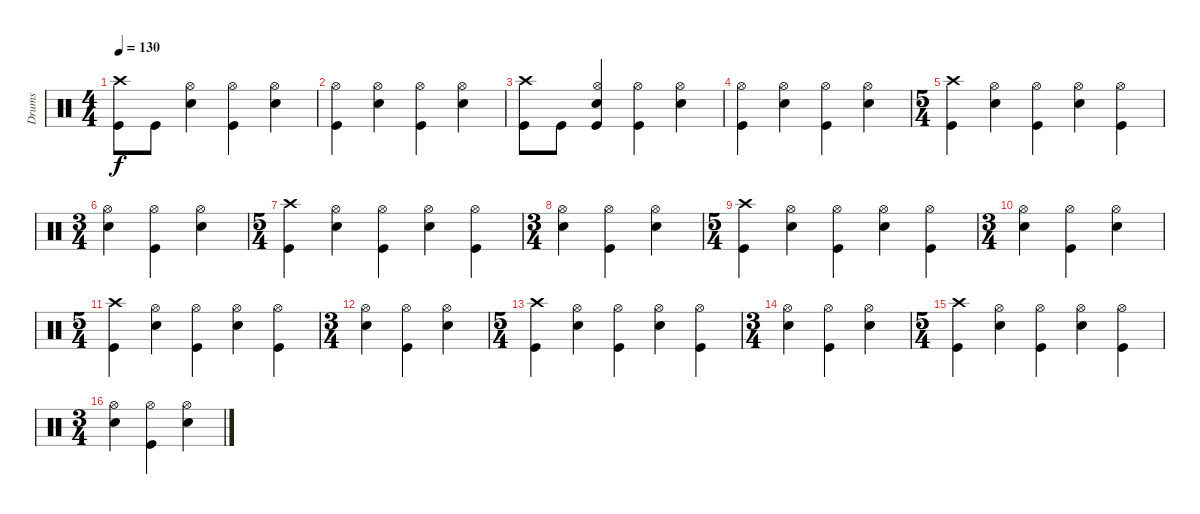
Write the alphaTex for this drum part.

\track ("Drums" "Drums") {instrument percussion}
\staff {score}
\articulation defaults
\ts (4 4)
\tempo 130
\clef neutral
\ks c
("Crash high (hit)" "Kick (hit)").8{dy f} "Kick (hit)".8 ("Hi-Hat (open)" "Snare (hit) 2").4 ("Hi-Hat (open)" "Kick (hit)").4 ("Hi-Hat (open)" "Snare (hit) 2").4 |
("Hi-Hat (open)" "Kick (hit)").4 ("Hi-Hat (open)" "Snare (hit) 2").4 ("Hi-Hat (open)" "Kick (hit)").4 ("Hi-Hat (open)" "Snare (hit) 2").4 |
("Crash high (hit)" "Kick (hit)").8 "Kick (hit)".8 ("Hi-Hat (open)" "Snare (hit) 2" "Kick (hit)").4 ("Hi-Hat (open)" "Kick (hit)").4 ("Hi-Hat (open)" "Snare (hit) 2").4 |
("Hi-Hat (open)" "Kick (hit)").4 ("Hi-Hat (open)" "Snare (hit) 2").4 ("Hi-Hat (open)" "Kick (hit)").4 ("Hi-Hat (open)" "Snare (hit) 2").4 |
\ts (5 4)
("Crash high (hit)" "Kick (hit)").4 ("Hi-Hat (open)" "Snare (hit) 2").4 ("Hi-Hat (open)" "Kick (hit)").4 ("Hi-Hat (open)" "Snare (hit) 2").4 ("Hi-Hat (open)" "Kick (hit)").4 |
\ts (3 4)
("Hi-Hat (open)" "Snare (hit) 2").4 ("Hi-Hat (open)" "Kick (hit)").4 ("Hi-Hat (open)" "Snare (hit) 2").4 |
\ts (5 4)
("Crash high (hit)" "Kick (hit)").4 ("Hi-Hat (open)" "Snare (hit) 2").4 ("Hi-Hat (open)" "Kick (hit)").4 ("Hi-Hat (open)" "Snare (hit) 2").4 ("Hi-Hat (open)" "Kick (hit)").4 |
\ts (3 4)
("Hi-Hat (open)" "Snare (hit) 2").4 ("Hi-Hat (open)" "Kick (hit)").4 ("Hi-Hat (open)" "Snare (hit) 2").4 |
\ts (5 4)
("Crash high (hit)" "Kick (hit)").4 ("Hi-Hat (open)" "Snare (hit) 2").4 ("Hi-Hat (open)" "Kick (hit)").4 ("Hi-Hat (open)" "Snare (hit) 2").4 ("Hi-Hat (open)" "Kick (hit)").4 |
\ts (3 4)
("Hi-Hat (open)" "Snare (hit) 2").4 ("Hi-Hat (open)" "Kick (hit)").4 ("Hi-Hat (open)" "Snare (hit) 2").4 |
\ts (5 4)
("Crash high (hit)" "Kick (hit)").4 ("Hi-Hat (open)" "Snare (hit) 2").4 ("Hi-Hat (open)" "Kick (hit)").4 ("Hi-Hat (open)" "Snare (hit) 2").4 ("Hi-Hat (open)" "Kick (hit)").4 |
\ts (3 4)
("Hi-Hat (open)" "Snare (hit) 2").4 ("Hi-Hat (open)" "Kick (hit)").4 ("Hi-Hat (open)" "Snare (hit) 2").4 |
\ts (5 4)
("Crash high (hit)" "Kick (hit)").4 ("Hi-Hat (open)" "Snare (hit) 2").4 ("Hi-Hat (open)" "Kick (hit)").4 ("Hi-Hat (open)" "Snare (hit) 2").4 ("Hi-Hat (open)" "Kick (hit)").4 |
\ts (3 4)
("Hi-Hat (open)" "Snare (hit) 2").4 ("Hi-Hat (open)" "Kick (hit)").4 ("Hi-Hat (open)" "Snare (hit) 2").4 |
\ts (5 4)
("Crash high (hit)" "Kick (hit)").4 ("Hi-Hat (open)" "Snare (hit) 2").4 ("Hi-Hat (open)" "Kick (hit)").4 ("Hi-Hat (open)" "Snare (hit) 2").4 ("Hi-Hat (open)" "Kick (hit)").4 |
\ts (3 4)
("Hi-Hat (open)" "Snare (hit) 2").4 ("Hi-Hat (open)" "Kick (hit)").4 ("Hi-Hat (open)" "Snare (hit) 2").4
